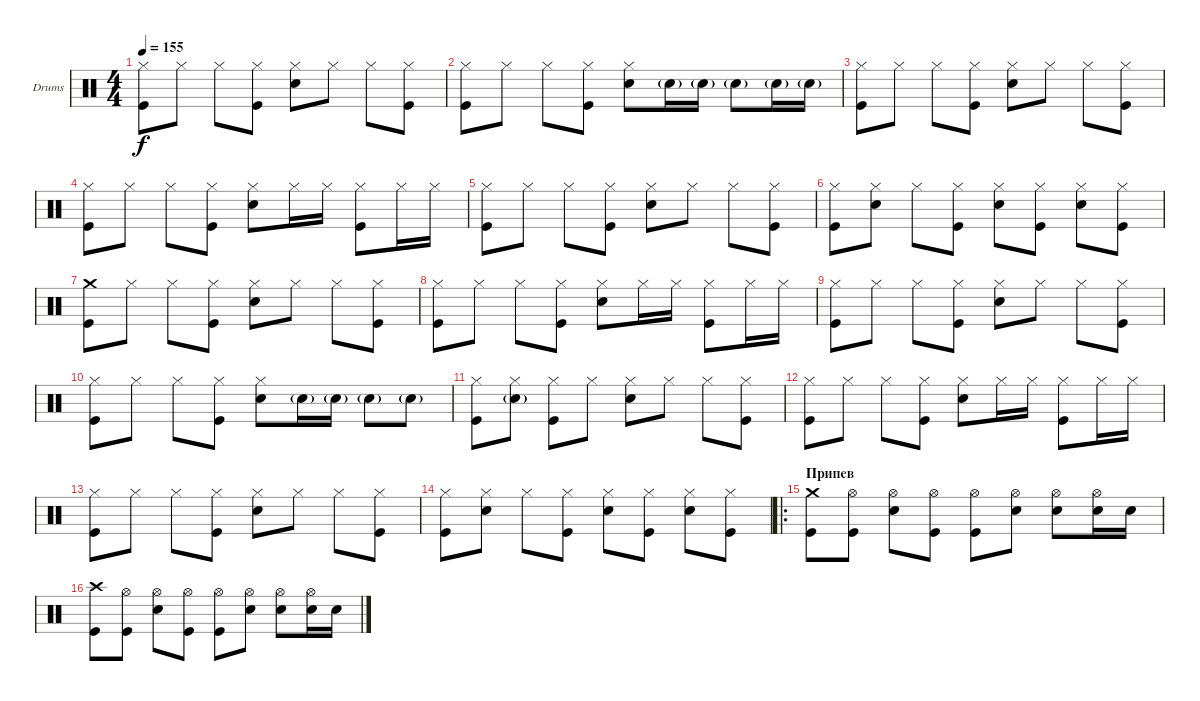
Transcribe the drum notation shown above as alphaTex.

\bracketExtendMode groupsimilarinstruments
\firstSystemTrackNameOrientation horizontal
\otherSystemsTrackNameOrientation horizontal
\track ("Drumkit" "Drums") {instrument percussion}
\staff {score}
\articulation defaults
\ts (4 4)
\tempo 155
\clef neutral
\ks c
("Kick (hit)" "Hi-Hat (closed)").8{dy f} "Hi-Hat (closed)".8 "Hi-Hat (closed)".8 ("Kick (hit)" "Hi-Hat (closed)").8 ("Snare (hit) 2" "Hi-Hat (closed)").8 "Hi-Hat (closed)".8 "Hi-Hat (closed)".8 ("Kick (hit)" "Hi-Hat (closed)").8 |
("Kick (hit)" "Hi-Hat (closed)").8 "Hi-Hat (closed)".8 "Hi-Hat (closed)".8 ("Kick (hit)" "Hi-Hat (closed)").8 ("Hi-Hat (closed)" "Snare (hit) 2").8 "Snare (hit) 2"{g}.16 "Snare (hit) 2"{g}.16 "Snare (hit) 2"{g}.8 "Snare (hit) 2"{g}.16 "Snare (hit) 2"{g}.16 |
("Kick (hit)" "Hi-Hat (closed)").8 "Hi-Hat (closed)".8 "Hi-Hat (closed)".8 ("Kick (hit)" "Hi-Hat (closed)").8 ("Snare (hit) 2" "Hi-Hat (closed)").8 "Hi-Hat (closed)".8 "Hi-Hat (closed)".8 ("Kick (hit)" "Hi-Hat (closed)").8 |
("Kick (hit)" "Hi-Hat (closed)").8 "Hi-Hat (closed)".8 "Hi-Hat (closed)".8 ("Hi-Hat (closed)" "Kick (hit)").8 ("Snare (hit) 2" "Hi-Hat (closed)").8 "Hi-Hat (closed)".16 "Hi-Hat (closed)".16 ("Hi-Hat (closed)" "Kick (hit)").8 "Hi-Hat (closed)".16 "Hi-Hat (closed)".16 |
("Kick (hit)" "Hi-Hat (closed)").8 "Hi-Hat (closed)".8 "Hi-Hat (closed)".8 ("Kick (hit)" "Hi-Hat (closed)").8 ("Snare (hit) 2" "Hi-Hat (closed)").8 "Hi-Hat (closed)".8 "Hi-Hat (closed)".8 ("Kick (hit)" "Hi-Hat (closed)").8 |
("Kick (hit)" "Hi-Hat (closed)").8 ("Snare (hit) 2" "Hi-Hat (closed)").8 "Hi-Hat (closed)".8 ("Kick (hit)" "Hi-Hat (closed)").8 ("Snare (hit) 2" "Hi-Hat (closed)").8 ("Kick (hit)" "Hi-Hat (closed)").8 ("Snare (hit) 2" "Hi-Hat (closed)").8 ("Kick (hit)" "Hi-Hat (closed)").8 |
("Kick (hit)" "Crash medium (hit)").8 "Hi-Hat (closed)".8 "Hi-Hat (closed)".8 ("Kick (hit)" "Hi-Hat (closed)").8 ("Snare (hit) 2" "Hi-Hat (closed)").8 "Hi-Hat (closed)".8 "Hi-Hat (closed)".8 ("Kick (hit)" "Hi-Hat (closed)").8 |
("Kick (hit)" "Hi-Hat (closed)").8 "Hi-Hat (closed)".8 "Hi-Hat (closed)".8 ("Hi-Hat (closed)" "Kick (hit)").8 ("Snare (hit) 2" "Hi-Hat (closed)").8 "Hi-Hat (closed)".16 "Hi-Hat (closed)".16 ("Hi-Hat (closed)" "Kick (hit)").8 "Hi-Hat (closed)".16 "Hi-Hat (closed)".16 |
("Kick (hit)" "Hi-Hat (closed)").8 "Hi-Hat (closed)".8 "Hi-Hat (closed)".8 ("Kick (hit)" "Hi-Hat (closed)").8 ("Snare (hit) 2" "Hi-Hat (closed)").8 "Hi-Hat (closed)".8 "Hi-Hat (closed)".8 ("Kick (hit)" "Hi-Hat (closed)").8 |
("Kick (hit)" "Hi-Hat (closed)").8 "Hi-Hat (closed)".8 "Hi-Hat (closed)".8 ("Kick (hit)" "Hi-Hat (closed)").8 ("Hi-Hat (closed)" "Snare (hit) 2").8 "Snare (hit) 2"{g}.16 "Snare (hit) 2"{g}.16 "Snare (hit) 2"{g}.8 "Snare (hit) 2"{g}.8 |
("Kick (hit)" "Hi-Hat (closed)").8 ("Snare (hit) 2"{g} "Hi-Hat (closed)").8 ("Kick (hit)" "Hi-Hat (closed)").8 "Hi-Hat (closed)".8 ("Snare (hit) 2" "Hi-Hat (closed)").8 "Hi-Hat (closed)".8 "Hi-Hat (closed)".8 ("Kick (hit)" "Hi-Hat (closed)").8 |
("Kick (hit)" "Hi-Hat (closed)").8 "Hi-Hat (closed)".8 "Hi-Hat (closed)".8 ("Hi-Hat (closed)" "Kick (hit)").8 ("Snare (hit) 2" "Hi-Hat (closed)").8 "Hi-Hat (closed)".16 "Hi-Hat (closed)".16 ("Hi-Hat (closed)" "Kick (hit)").8 "Hi-Hat (closed)".16 "Hi-Hat (closed)".16 |
("Kick (hit)" "Hi-Hat (closed)").8 "Hi-Hat (closed)".8 "Hi-Hat (closed)".8 ("Kick (hit)" "Hi-Hat (closed)").8 ("Snare (hit) 2" "Hi-Hat (closed)").8 "Hi-Hat (closed)".8 "Hi-Hat (closed)".8 ("Kick (hit)" "Hi-Hat (closed)").8 |
("Kick (hit)" "Hi-Hat (closed)").8 ("Hi-Hat (closed)" "Snare (hit) 2").8 "Hi-Hat (closed)".8 ("Kick (hit)" "Hi-Hat (closed)").8 ("Snare (hit) 2" "Hi-Hat (closed)").8 ("Kick (hit)" "Hi-Hat (closed)").8 ("Snare (hit) 2" "Hi-Hat (closed)").8 ("Hi-Hat (closed)" "Kick (hit)").8 |
\ro
\section ("" "Припев")
("Crash medium (hit)" "Kick (hit)").8 ("Hi-Hat (open)" "Kick (hit)").8 ("Hi-Hat (open)" "Snare (hit) 2").8 ("Hi-Hat (open)" "Kick (hit)").8 ("Hi-Hat (open)" "Kick (hit)").8 ("Hi-Hat (open)" "Snare (hit) 2").8 ("Hi-Hat (open)" "Snare (hit) 2").8 ("Hi-Hat (open)" "Snare (hit) 2").16 "Snare (hit) 2".16 |
("Kick (hit)" "Crash high (hit)").8 ("Hi-Hat (open)" "Kick (hit)").8 ("Hi-Hat (open)" "Snare (hit) 2").8 ("Hi-Hat (open)" "Kick (hit)").8 ("Hi-Hat (open)" "Kick (hit)").8 ("Hi-Hat (open)" "Snare (hit) 2").8 ("Hi-Hat (open)" "Snare (hit) 2").8 ("Hi-Hat (open)" "Snare (hit) 2").16 "Snare (hit) 2".16
